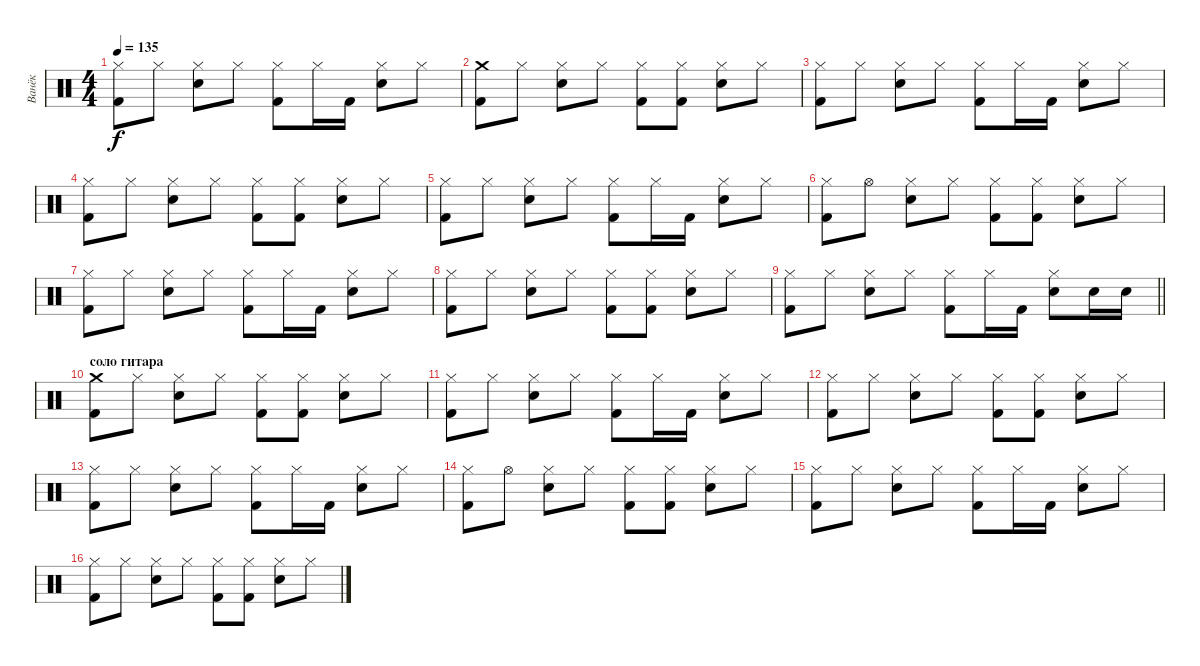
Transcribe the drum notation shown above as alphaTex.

\track ("Ванёк" "Ванёк") {instrument percussion}
\staff {score}
\articulation defaults
\ts (4 4)
\tempo 135
\clef neutral
\ks c
("Hi-Hat (closed)" "Kick (hit) 2").8{dy f} "Hi-Hat (closed)".8 ("Hi-Hat (closed)" "Snare (hit) 2").8 "Hi-Hat (closed)".8 ("Hi-Hat (closed)" "Kick (hit) 2").8 "Hi-Hat (closed)".16 "Kick (hit) 2".16 ("Hi-Hat (closed)" "Snare (hit) 2").8 "Hi-Hat (closed)".8 |
("Crash medium (hit)" "Kick (hit) 2").8 "Hi-Hat (closed)".8 ("Hi-Hat (closed)" "Snare (hit) 2").8 "Hi-Hat (closed)".8 ("Hi-Hat (closed)" "Kick (hit) 2").8 ("Hi-Hat (closed)" "Kick (hit) 2").8 ("Hi-Hat (closed)" "Snare (hit) 2").8 "Hi-Hat (closed)".8 |
("Hi-Hat (closed)" "Kick (hit) 2").8 "Hi-Hat (closed)".8 ("Hi-Hat (closed)" "Snare (hit) 2").8 "Hi-Hat (closed)".8 ("Hi-Hat (closed)" "Kick (hit) 2").8 "Hi-Hat (closed)".16 "Kick (hit) 2".16 ("Hi-Hat (closed)" "Snare (hit) 2").8 "Hi-Hat (closed)".8 |
("Hi-Hat (closed)" "Kick (hit) 2").8 "Hi-Hat (closed)".8 ("Hi-Hat (closed)" "Snare (hit) 2").8 "Hi-Hat (closed)".8 ("Hi-Hat (closed)" "Kick (hit) 2").8 ("Hi-Hat (closed)" "Kick (hit) 2").8 ("Hi-Hat (closed)" "Snare (hit) 2").8 "Hi-Hat (closed)".8 |
("Hi-Hat (closed)" "Kick (hit) 2").8 "Hi-Hat (closed)".8 ("Hi-Hat (closed)" "Snare (hit) 2").8 "Hi-Hat (closed)".8 ("Hi-Hat (closed)" "Kick (hit) 2").8 "Hi-Hat (closed)".16 "Kick (hit) 2".16 ("Hi-Hat (closed)" "Snare (hit) 2").8 "Hi-Hat (closed)".8 |
("Hi-Hat (closed)" "Kick (hit) 2").8 "Hi-Hat (open)".8 ("Hi-Hat (closed)" "Snare (hit) 2").8 "Hi-Hat (closed)".8 ("Hi-Hat (closed)" "Kick (hit) 2").8 ("Hi-Hat (closed)" "Kick (hit) 2").8 ("Hi-Hat (closed)" "Snare (hit) 2").8 "Hi-Hat (closed)".8 |
("Hi-Hat (closed)" "Kick (hit) 2").8 "Hi-Hat (closed)".8 ("Hi-Hat (closed)" "Snare (hit) 2").8 "Hi-Hat (closed)".8 ("Hi-Hat (closed)" "Kick (hit) 2").8 "Hi-Hat (closed)".16 "Kick (hit) 2".16 ("Hi-Hat (closed)" "Snare (hit) 2").8 "Hi-Hat (closed)".8 |
("Hi-Hat (closed)" "Kick (hit) 2").8 "Hi-Hat (closed)".8 ("Hi-Hat (closed)" "Snare (hit) 2").8 "Hi-Hat (closed)".8 ("Hi-Hat (closed)" "Kick (hit) 2").8 ("Hi-Hat (closed)" "Kick (hit) 2").8 ("Hi-Hat (closed)" "Snare (hit) 2").8 "Hi-Hat (closed)".8 |
\barLineRight lightlight
("Hi-Hat (closed)" "Kick (hit) 2").8 "Hi-Hat (closed)".8 ("Hi-Hat (closed)" "Snare (hit) 2").8 "Hi-Hat (closed)".8 ("Hi-Hat (closed)" "Kick (hit) 2").8 "Hi-Hat (closed)".16 "Kick (hit) 2".16 ("Hi-Hat (closed)" "Snare (hit) 2").8 "Snare (hit) 2".16 "Snare (hit) 2".16 |
\section ("" "соло гитара")
("Crash medium (hit)" "Kick (hit) 2").8 "Hi-Hat (closed)".8 ("Hi-Hat (closed)" "Snare (hit) 2").8 "Hi-Hat (closed)".8 ("Hi-Hat (closed)" "Kick (hit) 2").8 ("Hi-Hat (closed)" "Kick (hit) 2").8 ("Hi-Hat (closed)" "Snare (hit) 2").8 "Hi-Hat (closed)".8 |
("Hi-Hat (closed)" "Kick (hit) 2").8 "Hi-Hat (closed)".8 ("Hi-Hat (closed)" "Snare (hit) 2").8 "Hi-Hat (closed)".8 ("Hi-Hat (closed)" "Kick (hit) 2").8 "Hi-Hat (closed)".16 "Kick (hit) 2".16 ("Hi-Hat (closed)" "Snare (hit) 2").8 "Hi-Hat (closed)".8 |
("Hi-Hat (closed)" "Kick (hit) 2").8 "Hi-Hat (closed)".8 ("Hi-Hat (closed)" "Snare (hit) 2").8 "Hi-Hat (closed)".8 ("Hi-Hat (closed)" "Kick (hit) 2").8 ("Hi-Hat (closed)" "Kick (hit) 2").8 ("Hi-Hat (closed)" "Snare (hit) 2").8 "Hi-Hat (closed)".8 |
("Hi-Hat (closed)" "Kick (hit) 2").8 "Hi-Hat (closed)".8 ("Hi-Hat (closed)" "Snare (hit) 2").8 "Hi-Hat (closed)".8 ("Hi-Hat (closed)" "Kick (hit) 2").8 "Hi-Hat (closed)".16 "Kick (hit) 2".16 ("Hi-Hat (closed)" "Snare (hit) 2").8 "Hi-Hat (closed)".8 |
("Hi-Hat (closed)" "Kick (hit) 2").8 "Hi-Hat (open)".8 ("Hi-Hat (closed)" "Snare (hit) 2").8 "Hi-Hat (closed)".8 ("Hi-Hat (closed)" "Kick (hit) 2").8 ("Hi-Hat (closed)" "Kick (hit) 2").8 ("Hi-Hat (closed)" "Snare (hit) 2").8 "Hi-Hat (closed)".8 |
("Hi-Hat (closed)" "Kick (hit) 2").8 "Hi-Hat (closed)".8 ("Hi-Hat (closed)" "Snare (hit) 2").8 "Hi-Hat (closed)".8 ("Hi-Hat (closed)" "Kick (hit) 2").8 "Hi-Hat (closed)".16 "Kick (hit) 2".16 ("Hi-Hat (closed)" "Snare (hit) 2").8 "Hi-Hat (closed)".8 |
("Hi-Hat (closed)" "Kick (hit) 2").8 "Hi-Hat (closed)".8 ("Hi-Hat (closed)" "Snare (hit) 2").8 "Hi-Hat (closed)".8 ("Hi-Hat (closed)" "Kick (hit) 2").8 ("Hi-Hat (closed)" "Kick (hit) 2").8 ("Hi-Hat (closed)" "Snare (hit) 2").8 "Hi-Hat (closed)".8
